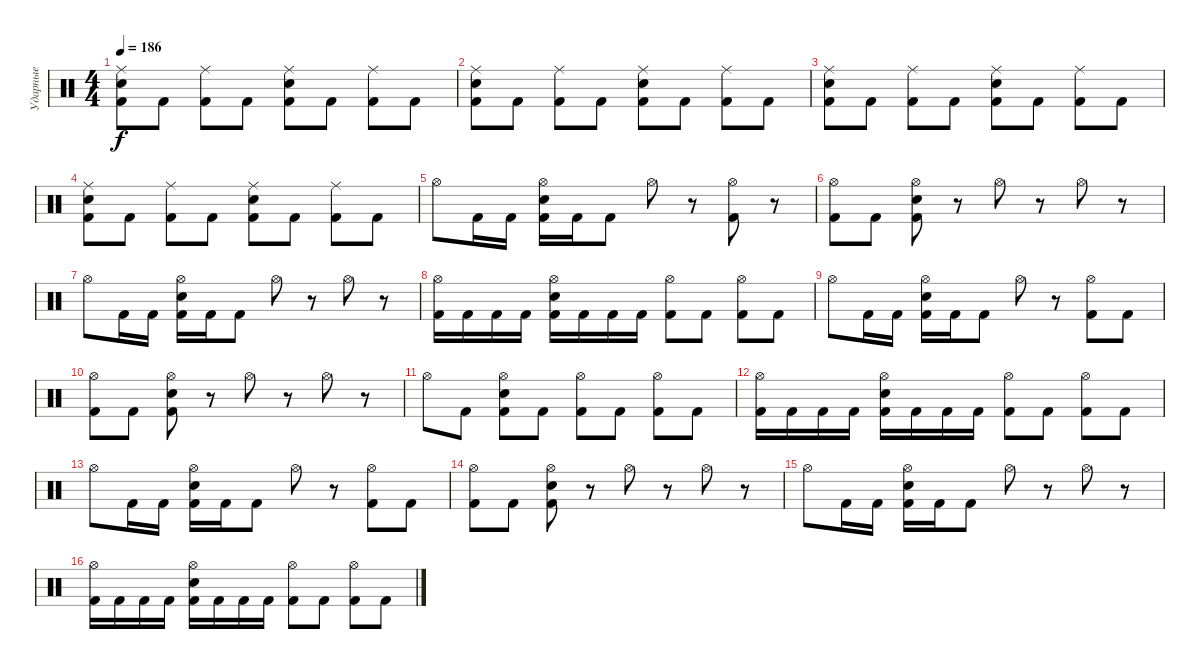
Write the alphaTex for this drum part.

\track ("Ударные" "Ударные") {instrument percussion}
\staff {score}
\articulation defaults
\ts (4 4)
\tempo 186
\clef neutral
\ks c
("Ride (middle)" "Snare (hit) 2" "Kick (hit) 2").8{dy f} "Kick (hit) 2".8 ("Ride (middle)" "Kick (hit) 2").8 "Kick (hit) 2".8 ("Ride (middle)" "Snare (hit) 2" "Kick (hit) 2").8 "Kick (hit) 2".8 ("Ride (middle)" "Kick (hit) 2").8 "Kick (hit) 2".8 |
("Ride (middle)" "Snare (hit) 2" "Kick (hit) 2").8 "Kick (hit) 2".8 ("Ride (middle)" "Kick (hit) 2").8 "Kick (hit) 2".8 ("Ride (middle)" "Snare (hit) 2" "Kick (hit) 2").8 "Kick (hit) 2".8 ("Ride (middle)" "Kick (hit) 2").8 "Kick (hit) 2".8 |
("Ride (middle)" "Snare (hit) 2" "Kick (hit) 2").8 "Kick (hit) 2".8 ("Ride (middle)" "Kick (hit) 2").8 "Kick (hit) 2".8 ("Ride (middle)" "Snare (hit) 2" "Kick (hit) 2").8 "Kick (hit) 2".8 ("Ride (middle)" "Kick (hit) 2").8 "Kick (hit) 2".8 |
("Ride (middle)" "Snare (hit) 2" "Kick (hit) 2").8 "Kick (hit) 2".8 ("Ride (middle)" "Kick (hit) 2").8 "Kick (hit) 2".8 ("Ride (middle)" "Snare (hit) 2" "Kick (hit) 2").8 "Kick (hit) 2".8 ("Ride (middle)" "Kick (hit) 2").8 "Kick (hit) 2".8 |
"Hi-Hat (open)".8 "Kick (hit) 2".16 "Kick (hit) 2".16 ("Hi-Hat (open)" "Snare (hit) 2" "Kick (hit) 2").16 "Kick (hit) 2".16 "Kick (hit) 2".8 "Hi-Hat (open)".8 r.8 ("Hi-Hat (open)" "Kick (hit) 2").8 r.8 |
("Hi-Hat (open)" "Kick (hit) 2").8 "Kick (hit) 2".8 ("Hi-Hat (open)" "Snare (hit) 2" "Kick (hit) 2").8 r.8 "Hi-Hat (open)".8 r.8 "Hi-Hat (open)".8 r.8 |
"Hi-Hat (open)".8 "Kick (hit) 2".16 "Kick (hit) 2".16 ("Hi-Hat (open)" "Snare (hit) 2" "Kick (hit) 2").16 "Kick (hit) 2".16 "Kick (hit) 2".8 "Hi-Hat (open)".8 r.8 "Hi-Hat (open)".8 r.8 |
("Hi-Hat (open)" "Kick (hit) 2").16 "Kick (hit) 2".16 "Kick (hit) 2".16 "Kick (hit) 2".16 ("Hi-Hat (open)" "Snare (hit) 2" "Kick (hit) 2").16 "Kick (hit) 2".16 "Kick (hit) 2".16 "Kick (hit) 2".16 ("Hi-Hat (open)" "Kick (hit) 2").8 "Kick (hit) 2".8 ("Hi-Hat (open)" "Kick (hit) 2").8 "Kick (hit) 2".8 |
"Hi-Hat (open)".8 "Kick (hit) 2".16 "Kick (hit) 2".16 ("Hi-Hat (open)" "Snare (hit) 2" "Kick (hit) 2").16 "Kick (hit) 2".16 "Kick (hit) 2".8 "Hi-Hat (open)".8 r.8 ("Hi-Hat (open)" "Kick (hit) 2").8 "Kick (hit) 2".8 |
("Hi-Hat (open)" "Kick (hit) 2").8 "Kick (hit) 2".8 ("Hi-Hat (open)" "Snare (hit) 2" "Kick (hit) 2").8 r.8 "Hi-Hat (open)".8 r.8 "Hi-Hat (open)".8 r.8 |
"Hi-Hat (open)".8 "Kick (hit) 2".8 ("Hi-Hat (open)" "Snare (hit) 2" "Kick (hit) 2").8 "Kick (hit) 2".8 ("Hi-Hat (open)" "Kick (hit) 2").8 "Kick (hit) 2".8 ("Hi-Hat (open)" "Kick (hit) 2").8 "Kick (hit) 2".8 |
("Hi-Hat (open)" "Kick (hit) 2").16 "Kick (hit) 2".16 "Kick (hit) 2".16 "Kick (hit) 2".16 ("Hi-Hat (open)" "Snare (hit) 2" "Kick (hit) 2").16 "Kick (hit) 2".16 "Kick (hit) 2".16 "Kick (hit) 2".16 ("Hi-Hat (open)" "Kick (hit) 2").8 "Kick (hit) 2".8 ("Hi-Hat (open)" "Kick (hit) 2").8 "Kick (hit) 2".8 |
"Hi-Hat (open)".8 "Kick (hit) 2".16 "Kick (hit) 2".16 ("Hi-Hat (open)" "Snare (hit) 2" "Kick (hit) 2").16 "Kick (hit) 2".16 "Kick (hit) 2".8 "Hi-Hat (open)".8 r.8 ("Hi-Hat (open)" "Kick (hit) 2").8 "Kick (hit) 2".8 |
("Hi-Hat (open)" "Kick (hit) 2").8 "Kick (hit) 2".8 ("Hi-Hat (open)" "Snare (hit) 2" "Kick (hit) 2").8 r.8 "Hi-Hat (open)".8 r.8 "Hi-Hat (open)".8 r.8 |
"Hi-Hat (open)".8 "Kick (hit) 2".16 "Kick (hit) 2".16 ("Hi-Hat (open)" "Snare (hit) 2" "Kick (hit) 2").16 "Kick (hit) 2".16 "Kick (hit) 2".8 "Hi-Hat (open)".8 r.8 "Hi-Hat (open)".8 r.8 |
("Hi-Hat (open)" "Kick (hit) 2").16 "Kick (hit) 2".16 "Kick (hit) 2".16 "Kick (hit) 2".16 ("Hi-Hat (open)" "Snare (hit) 2" "Kick (hit) 2").16 "Kick (hit) 2".16 "Kick (hit) 2".16 "Kick (hit) 2".16 ("Hi-Hat (open)" "Kick (hit) 2").8 "Kick (hit) 2".8 ("Hi-Hat (open)" "Kick (hit) 2").8 "Kick (hit) 2".8
